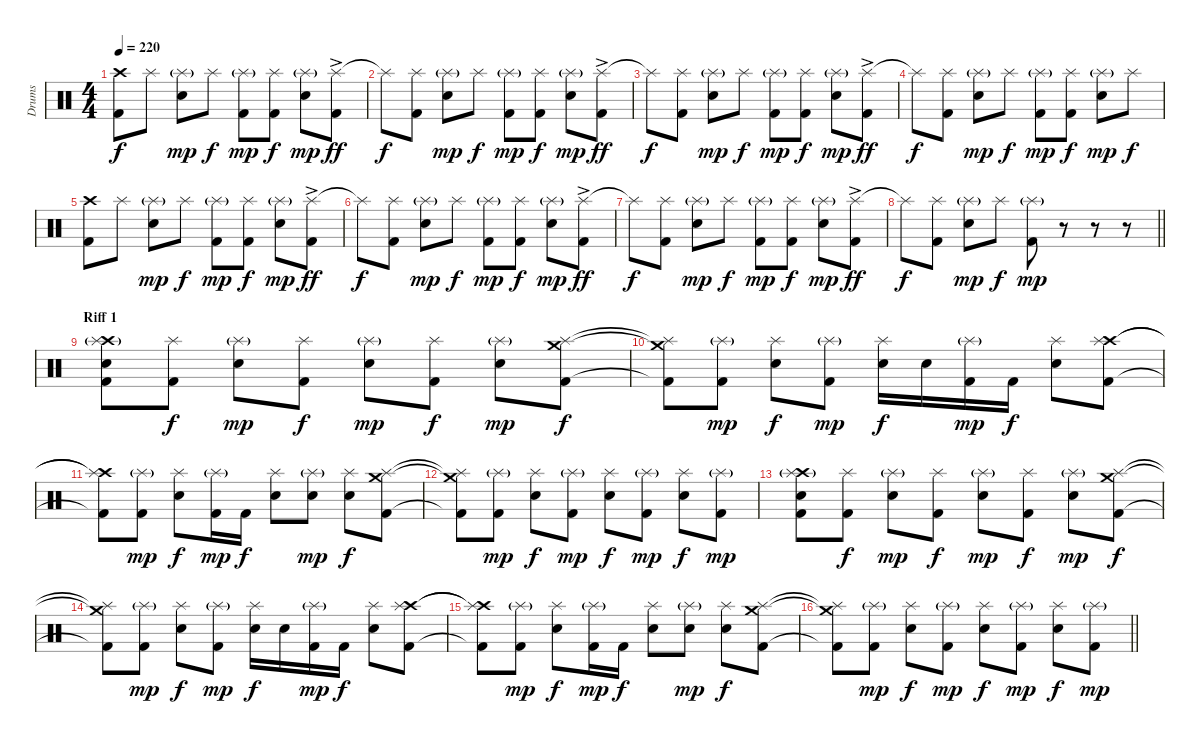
\track ("Drums" "Drums") {instrument percussion}
\staff {score}
\articulation defaults
\ts (4 4)
\tempo 220
\clef neutral
\ks c
("Crash high (hit)" "Kick (hit) 2").8{dy f} "Splash (hit)".8 ("Splash (hit)"{g} "Electric Snare (hit)").8{dy mp} "Splash (hit)".8{dy f} ("Splash (hit)"{g} "Kick (hit) 2").8{dy mp} ("Splash (hit)" "Kick (hit) 2").8{dy f} ("Splash (hit)"{g} "Electric Snare (hit)").8{dy mp} ("Splash (hit)"{ac} "Kick (hit) 2").8{dy ff} |
"Splash (hit)"{t}.8{dy f} ("Splash (hit)" "Kick (hit) 2").8 ("Splash (hit)"{g} "Electric Snare (hit)").8{dy mp} "Splash (hit)".8{dy f} ("Splash (hit)"{g} "Kick (hit) 2").8{dy mp} ("Splash (hit)" "Kick (hit) 2").8{dy f} ("Splash (hit)"{g} "Electric Snare (hit)").8{dy mp} ("Splash (hit)"{ac} "Kick (hit) 2").8{dy ff} |
"Splash (hit)"{t}.8{dy f} ("Splash (hit)" "Kick (hit) 2").8 ("Splash (hit)"{g} "Electric Snare (hit)").8{dy mp} "Splash (hit)".8{dy f} ("Splash (hit)"{g} "Kick (hit) 2").8{dy mp} ("Splash (hit)" "Kick (hit) 2").8{dy f} ("Splash (hit)"{g} "Electric Snare (hit)").8{dy mp} ("Splash (hit)"{ac} "Kick (hit) 2").8{dy ff} |
"Splash (hit)"{t}.8{dy f} ("Splash (hit)" "Kick (hit) 2").8 ("Splash (hit)"{g} "Electric Snare (hit)").8{dy mp} "Splash (hit)".8{dy f} ("Splash (hit)"{g} "Kick (hit) 2").8{dy mp} ("Splash (hit)" "Kick (hit) 2").8{dy f} ("Splash (hit)"{g} "Electric Snare (hit)").8{dy mp} "Splash (hit)".8{dy f} |
("Crash high (hit)" "Kick (hit) 2").8 "Splash (hit)".8 ("Splash (hit)"{g} "Electric Snare (hit)").8{dy mp} "Splash (hit)".8{dy f} ("Splash (hit)"{g} "Kick (hit) 2").8{dy mp} ("Splash (hit)" "Kick (hit) 2").8{dy f} ("Splash (hit)"{g} "Electric Snare (hit)").8{dy mp} ("Splash (hit)"{ac} "Kick (hit) 2").8{dy ff} |
"Splash (hit)"{t}.8{dy f} ("Splash (hit)" "Kick (hit) 2").8 ("Splash (hit)"{g} "Electric Snare (hit)").8{dy mp} "Splash (hit)".8{dy f} ("Splash (hit)"{g} "Kick (hit) 2").8{dy mp} ("Splash (hit)" "Kick (hit) 2").8{dy f} ("Splash (hit)"{g} "Electric Snare (hit)").8{dy mp} ("Splash (hit)"{ac} "Kick (hit) 2").8{dy ff} |
"Splash (hit)"{t}.8{dy f} ("Splash (hit)" "Kick (hit) 2").8 ("Splash (hit)"{g} "Electric Snare (hit)").8{dy mp} "Splash (hit)".8{dy f} ("Splash (hit)"{g} "Kick (hit) 2").8{dy mp} ("Splash (hit)" "Kick (hit) 2").8{dy f} ("Splash (hit)"{g} "Electric Snare (hit)").8{dy mp} ("Splash (hit)"{ac} "Kick (hit) 2").8{dy ff} |
\barLineRight lightlight "Splash (hit)"{t}.8{dy f}
("Splash (hit)" "Kick (hit) 2").8 ("Splash (hit)"{g} "Electric Snare (hit)").8{dy mp} "Splash (hit)".8{dy f} ("Splash (hit)"{g} "Kick (hit) 2").8{dy mp} r.8 r.8 r.8 |
\section ("" "Riff 1")
("Crash high (hit)" "Splash (hit)"{g} "Electric Snare (hit)" "Kick (hit) 2").8 ("Splash (hit)" "Kick (hit) 2").8{dy f} ("Splash (hit)"{g} "Electric Snare (hit)").8{dy mp} ("Splash (hit)" "Kick (hit) 2").8{dy f} ("Splash (hit)"{g} "Electric Snare (hit)").8{dy mp} ("Splash (hit)" "Kick (hit) 2").8{dy f} ("Splash (hit)"{g} "Electric Snare (hit)").8{dy mp} ("Crash medium (hit)" "Splash (hit)" "Kick (hit) 2").8{dy f} |
("Crash medium (hit)"{t} "Splash (hit)"{t} "Kick (hit) 2"{t}).8 ("Splash (hit)"{g} "Kick (hit) 2").8{dy mp} ("Splash (hit)" "Electric Snare (hit)").8{dy f} ("Splash (hit)"{g} "Kick (hit) 2").8{dy mp} ("Splash (hit)" "Electric Snare (hit)").16{dy f} "Electric Snare (hit)".16 ("Splash (hit)"{g} "Kick (hit) 2").16{dy mp} "Kick (hit) 2".16{dy f} ("Splash (hit)" "Electric Snare (hit)").8 ("Crash high (hit)" "Splash (hit)" "Kick (hit) 2").8 |
("Crash high (hit)"{t} "Splash (hit)"{t} "Kick (hit) 2"{t}).8 ("Splash (hit)"{g} "Kick (hit) 2").8{dy mp} ("Splash (hit)" "Electric Snare (hit)").8{dy f} ("Splash (hit)"{g} "Kick (hit) 2").16{dy mp} "Kick (hit) 2".16{dy f} ("Splash (hit)" "Electric Snare (hit)").8 ("Splash (hit)"{g} "Electric Snare (hit)").8{dy mp} ("Splash (hit)" "Electric Snare (hit)").8{dy f} ("Crash medium (hit)" "Splash (hit)" "Kick (hit) 2").8 |
("Crash medium (hit)"{t} "Splash (hit)"{t} "Kick (hit) 2"{t}).8 ("Splash (hit)"{g} "Kick (hit) 2").8{dy mp} ("Splash (hit)" "Electric Snare (hit)").8{dy f} ("Splash (hit)"{g} "Kick (hit) 2").8{dy mp} ("Splash (hit)" "Electric Snare (hit)").8{dy f} ("Splash (hit)"{g} "Kick (hit) 2").8{dy mp} ("Splash (hit)" "Electric Snare (hit)").8{dy f} ("Splash (hit)"{g} "Kick (hit) 2").8{dy mp} |
("Crash high (hit)" "Splash (hit)"{g} "Electric Snare (hit)" "Kick (hit) 2").8 ("Splash (hit)" "Kick (hit) 2").8{dy f} ("Splash (hit)"{g} "Electric Snare (hit)").8{dy mp} ("Splash (hit)" "Kick (hit) 2").8{dy f} ("Splash (hit)"{g} "Electric Snare (hit)").8{dy mp} ("Splash (hit)" "Kick (hit) 2").8{dy f} ("Splash (hit)"{g} "Electric Snare (hit)").8{dy mp} ("Crash medium (hit)" "Splash (hit)" "Kick (hit) 2").8{dy f} |
("Crash medium (hit)"{t} "Splash (hit)"{t} "Kick (hit) 2"{t}).8 ("Splash (hit)"{g} "Kick (hit) 2").8{dy mp} ("Splash (hit)" "Electric Snare (hit)").8{dy f} ("Splash (hit)"{g} "Kick (hit) 2").8{dy mp} ("Splash (hit)" "Electric Snare (hit)").16{dy f} "Electric Snare (hit)".16 ("Splash (hit)"{g} "Kick (hit) 2").16{dy mp} "Kick (hit) 2".16{dy f} ("Splash (hit)" "Electric Snare (hit)").8 ("Crash high (hit)" "Splash (hit)" "Kick (hit) 2").8 |
("Crash high (hit)"{t} "Splash (hit)"{t} "Kick (hit) 2"{t}).8 ("Splash (hit)"{g} "Kick (hit) 2").8{dy mp} ("Splash (hit)" "Electric Snare (hit)").8{dy f} ("Splash (hit)"{g} "Kick (hit) 2").16{dy mp} "Kick (hit) 2".16{dy f} ("Splash (hit)" "Electric Snare (hit)").8 ("Splash (hit)"{g} "Electric Snare (hit)").8{dy mp} ("Splash (hit)" "Electric Snare (hit)").8{dy f} ("Crash medium (hit)" "Splash (hit)" "Kick (hit) 2").8 |
\barLineRight lightlight
("Crash medium (hit)"{t} "Splash (hit)"{t} "Kick (hit) 2"{t}).8 ("Splash (hit)"{g} "Kick (hit) 2").8{dy mp} ("Splash (hit)" "Electric Snare (hit)").8{dy f} ("Splash (hit)"{g} "Kick (hit) 2").8{dy mp} ("Splash (hit)" "Electric Snare (hit)").8{dy f} ("Splash (hit)"{g} "Kick (hit) 2").8{dy mp} ("Splash (hit)" "Electric Snare (hit)").8{dy f} ("Splash (hit)"{g} "Kick (hit) 2").8{dy mp}
